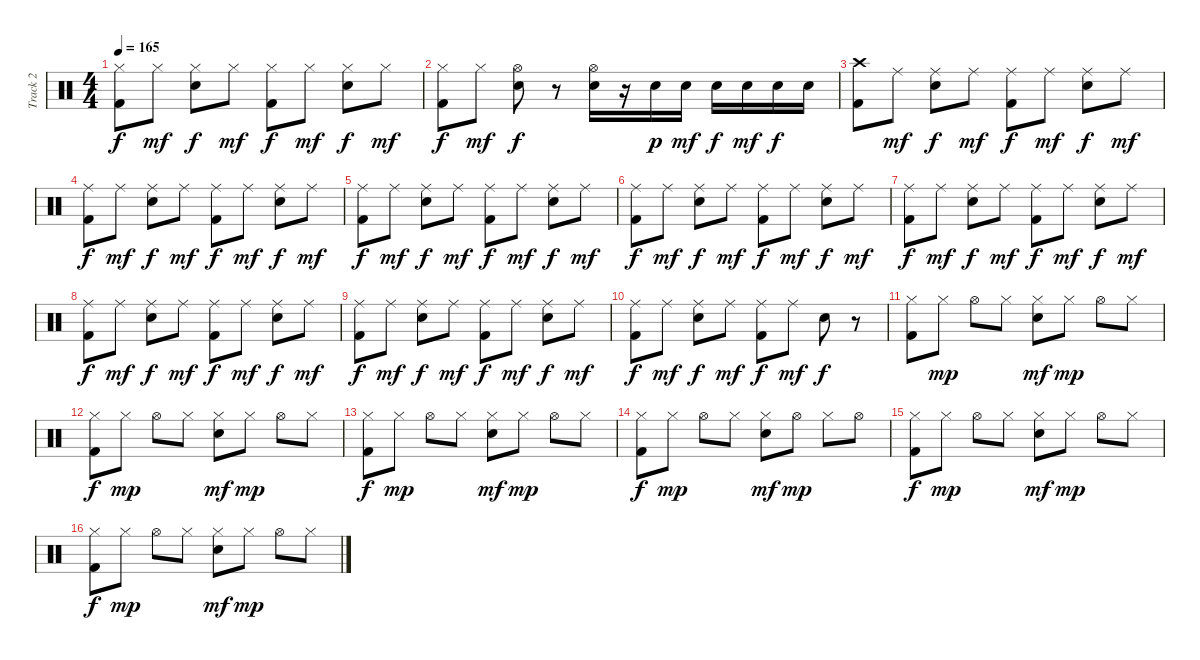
\track ("Track 2" "Track 2") {instrument percussion}
\staff {score}
\articulation defaults
\ts (4 4)
\tempo 165
\clef neutral
\ks c
("Hi-Hat (closed)" "Kick (hit) 2").8{dy f} "Hi-Hat (closed)".8{dy mf} ("Hi-Hat (closed)" "Electric Snare (hit)").8{dy f} "Hi-Hat (closed)".8{dy mf} ("Hi-Hat (closed)" "Kick (hit) 2").8{dy f} "Hi-Hat (closed)".8{dy mf} ("Hi-Hat (closed)" "Electric Snare (hit)").8{dy f} "Hi-Hat (closed)".8{dy mf} |
("Hi-Hat (closed)" "Kick (hit) 2").8{dy f} "Hi-Hat (closed)".8{dy mf} ("Hi-Hat (open)" "Electric Snare (hit)").8{dy f} r.8 ("Hi-Hat (open)" "Electric Snare (hit)").16 r.16 "Electric Snare (hit)".16{dy p} "Electric Snare (hit)".16{dy mf} "Electric Snare (hit)".16{dy f} "Electric Snare (hit)".16{dy mf} "Electric Snare (hit)".16{dy f} "Electric Snare (hit)".16 |
("Crash high (hit)" "Kick (hit) 2").8 "Ride (middle)".8{dy mf} ("Ride (middle)" "Electric Snare (hit)").8{dy f} "Ride (middle)".8{dy mf} ("Ride (middle)" "Kick (hit) 2").8{dy f} "Ride (middle)".8{dy mf} ("Ride (middle)" "Electric Snare (hit)").8{dy f} "Ride (middle)".8{dy mf} |
("Ride (middle)" "Kick (hit) 2").8{dy f} "Ride (middle)".8{dy mf} ("Ride (middle)" "Electric Snare (hit)").8{dy f} "Ride (middle)".8{dy mf} ("Ride (middle)" "Kick (hit) 2").8{dy f} "Ride (middle)".8{dy mf} ("Ride (middle)" "Electric Snare (hit)").8{dy f} "Ride (middle)".8{dy mf} |
("Ride (middle)" "Kick (hit) 2").8{dy f} "Ride (middle)".8{dy mf} ("Ride (middle)" "Electric Snare (hit)").8{dy f} "Ride (middle)".8{dy mf} ("Ride (middle)" "Kick (hit) 2").8{dy f} "Ride (middle)".8{dy mf} ("Ride (middle)" "Electric Snare (hit)").8{dy f} "Ride (middle)".8{dy mf} |
("Ride (middle)" "Kick (hit) 2").8{dy f} "Ride (middle)".8{dy mf} ("Ride (middle)" "Electric Snare (hit)").8{dy f} "Ride (middle)".8{dy mf} ("Ride (middle)" "Kick (hit) 2").8{dy f} "Ride (middle)".8{dy mf} ("Ride (middle)" "Electric Snare (hit)").8{dy f} "Ride (middle)".8{dy mf} |
("Ride (middle)" "Kick (hit) 2").8{dy f} "Ride (middle)".8{dy mf} ("Ride (middle)" "Electric Snare (hit)").8{dy f} "Ride (middle)".8{dy mf} ("Ride (middle)" "Kick (hit) 2").8{dy f} "Ride (middle)".8{dy mf} ("Ride (middle)" "Electric Snare (hit)").8{dy f} "Ride (middle)".8{dy mf} |
("Ride (middle)" "Kick (hit) 2").8{dy f} "Ride (middle)".8{dy mf} ("Ride (middle)" "Electric Snare (hit)").8{dy f} "Ride (middle)".8{dy mf} ("Ride (middle)" "Kick (hit) 2").8{dy f} "Ride (middle)".8{dy mf} ("Ride (middle)" "Electric Snare (hit)").8{dy f} "Ride (middle)".8{dy mf} |
("Ride (middle)" "Kick (hit) 2").8{dy f} "Ride (middle)".8{dy mf} ("Ride (middle)" "Electric Snare (hit)").8{dy f} "Ride (middle)".8{dy mf} ("Ride (middle)" "Kick (hit) 2").8{dy f} "Ride (middle)".8{dy mf} ("Ride (middle)" "Electric Snare (hit)").8{dy f} "Ride (middle)".8{dy mf} |
("Ride (middle)" "Kick (hit) 2").8{dy f} "Ride (middle)".8{dy mf} ("Ride (middle)" "Electric Snare (hit)").8{dy f} "Ride (middle)".8{dy mf} ("Ride (middle)" "Kick (hit) 2").8{dy f} "Ride (middle)".8{dy mf} "Electric Snare (hit)".8{dy f} r.8 |
("Hi-Hat (closed)" "Kick (hit) 2").8 "Hi-Hat (closed)".8{dy mp} "Hi-Hat (open)".8 "Hi-Hat (closed)".8 ("Hi-Hat (closed)" "Electric Snare (hit)").8{dy mf} "Hi-Hat (closed)".8{dy mp} "Hi-Hat (open)".8 "Hi-Hat (closed)".8 |
("Hi-Hat (closed)" "Kick (hit) 2").8{dy f} "Hi-Hat (closed)".8{dy mp} "Hi-Hat (open)".8 "Hi-Hat (closed)".8 ("Hi-Hat (closed)" "Electric Snare (hit)").8{dy mf} "Hi-Hat (closed)".8{dy mp} "Hi-Hat (open)".8 "Hi-Hat (closed)".8 |
("Hi-Hat (closed)" "Kick (hit) 2").8{dy f} "Hi-Hat (closed)".8{dy mp} "Hi-Hat (open)".8 "Hi-Hat (closed)".8 ("Hi-Hat (closed)" "Electric Snare (hit)").8{dy mf} "Hi-Hat (closed)".8{dy mp} "Hi-Hat (open)".8 "Hi-Hat (closed)".8 |
("Hi-Hat (closed)" "Kick (hit) 2").8{dy f} "Hi-Hat (closed)".8{dy mp} "Hi-Hat (open)".8 "Hi-Hat (closed)".8 ("Hi-Hat (closed)" "Electric Snare (hit)").8{dy mf} "Hi-Hat (open)".8{dy mp} "Hi-Hat (closed)".8 "Hi-Hat (open)".8 |
("Hi-Hat (closed)" "Kick (hit) 2").8{dy f} "Hi-Hat (closed)".8{dy mp} "Hi-Hat (open)".8 "Hi-Hat (closed)".8 ("Hi-Hat (closed)" "Electric Snare (hit)").8{dy mf} "Hi-Hat (closed)".8{dy mp} "Hi-Hat (open)".8 "Hi-Hat (closed)".8 |
("Hi-Hat (closed)" "Kick (hit) 2").8{dy f} "Hi-Hat (closed)".8{dy mp} "Hi-Hat (open)".8 "Hi-Hat (closed)".8 ("Hi-Hat (closed)" "Electric Snare (hit)").8{dy mf} "Hi-Hat (closed)".8{dy mp} "Hi-Hat (open)".8 "Hi-Hat (closed)".8
